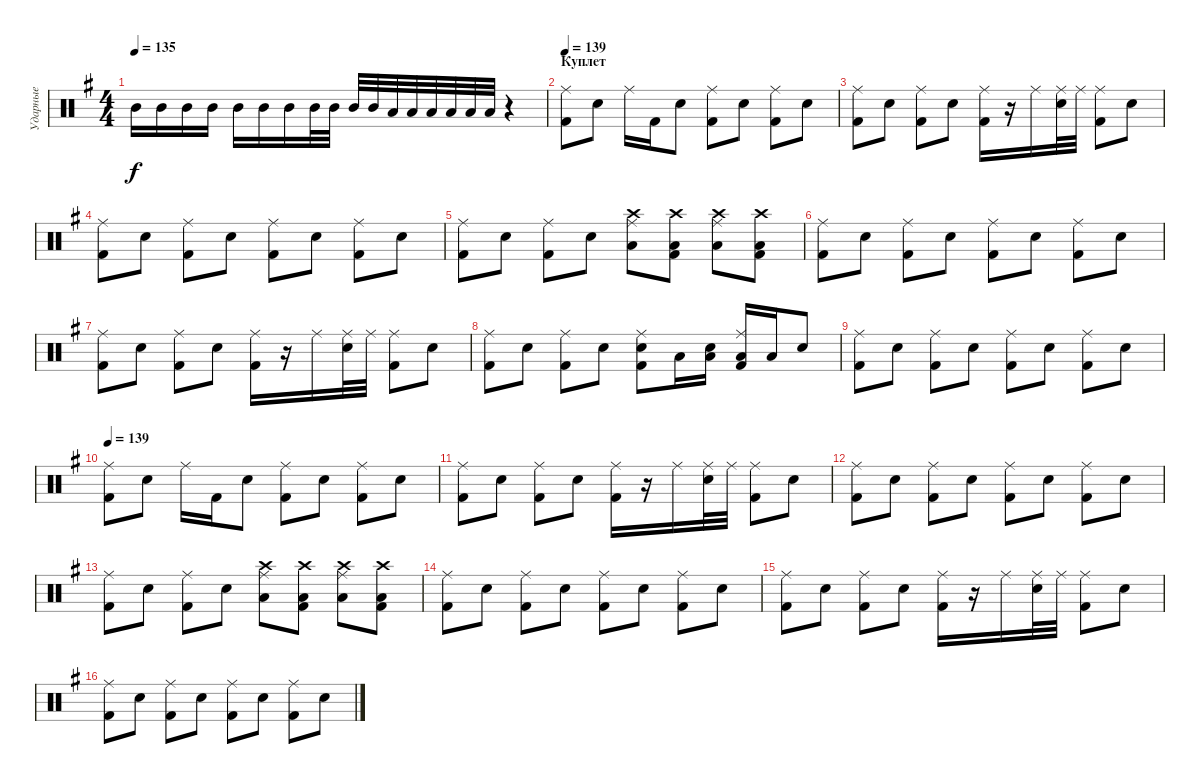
\track ("Ударные" "Ударные") {instrument percussion}
\staff {score}
\articulation defaults
\ts (4 4)
\tempo 135
\clef neutral
\ks eminor "Mid Tom (hit)".16{dy f} "Mid Tom (hit)".16 "Mid Tom (hit)".16 "Mid Tom (hit)".16 "Mid Tom (hit)".16 "Mid Tom (hit)".16 "Mid Tom (hit)".16 "Mid Tom (hit)".32 "Mid Tom (hit)".32 "Mid Tom (hit)".32 "Mid Tom (hit)".32 "Low Tom (hit)".32 "Low Tom (hit)".32 "Low Tom (hit)".32 "Low Tom (hit)".32 "Low Tom (hit)".32 "Low Tom (hit)".32
r.4 |
\section ("" "Куплет")
\tempo 139
("Ride (middle)" "Kick (hit) 2").8{volume 12} "Snare (hit) 2".8 "Ride (middle)".16 "Kick (hit) 2".16 "Snare (hit) 2".8 ("Ride (middle)" "Kick (hit) 2").8 "Snare (hit) 2".8 ("Ride (middle)" "Kick (hit) 2").8 "Snare (hit) 2".8 |
("Ride (middle)" "Kick (hit) 2").8 "Snare (hit) 2".8 ("Ride (middle)" "Kick (hit) 2").8 "Snare (hit) 2".8 ("Ride (middle)" "Kick (hit) 2").16 r.16 "Ride (middle)".16 ("Ride (middle)" "Snare (hit) 2").32 "Ride (middle)".32 ("Ride (middle)" "Kick (hit) 2").8 "Snare (hit) 2".8 |
("Ride (middle)" "Kick (hit) 2").8 "Snare (hit) 2".8 ("Ride (middle)" "Kick (hit) 2").8 "Snare (hit) 2".8 ("Ride (middle)" "Kick (hit) 2").8 "Snare (hit) 2".8 ("Ride (middle)" "Kick (hit) 2").8 "Snare (hit) 2".8 |
("Ride (middle)" "Kick (hit) 2").8 "Snare (hit) 2".8 ("Ride (middle)" "Kick (hit) 2").8 "Snare (hit) 2".8 ("Crash high (hit)" "Ride (middle)" "Low Tom (hit)").8 ("Crash high (hit)" "Kick (hit) 2" "Low Tom (hit)").8 ("Crash high (hit)" "Ride (middle)" "Low Tom (hit)").8 ("Crash high (hit)" "Kick (hit) 2" "Low Tom (hit)").8 |
("Ride (middle)" "Kick (hit) 2").8 "Snare (hit) 2".8 ("Ride (middle)" "Kick (hit) 2").8 "Snare (hit) 2".8 ("Ride (middle)" "Kick (hit) 2").8 "Snare (hit) 2".8 ("Ride (middle)" "Kick (hit) 2").8 "Snare (hit) 2".8 |
("Ride (middle)" "Kick (hit) 2").8 "Snare (hit) 2".8 ("Ride (middle)" "Kick (hit) 2").8 "Snare (hit) 2".8 ("Ride (middle)" "Kick (hit) 2").16 r.16 "Ride (middle)".16 ("Ride (middle)" "Snare (hit) 2").32 "Ride (middle)".32 ("Ride (middle)" "Kick (hit) 2").8 "Snare (hit) 2".8 |
("Ride (middle)" "Kick (hit) 2").8 "Snare (hit) 2".8 ("Ride (middle)" "Kick (hit) 2").8 "Snare (hit) 2".8 ("Snare (hit) 2" "Ride (middle)" "Kick (hit) 2").8 "Low Tom (hit)".16 ("Low Tom (hit)" "Snare (hit) 2").16 ("Low Tom (hit)" "Ride (middle)" "Kick (hit) 2").16 "Low Tom (hit)".16 "Snare (hit) 2".8 |
("Ride (middle)" "Kick (hit) 2").8 "Snare (hit) 2".8 ("Ride (middle)" "Kick (hit) 2").8 "Snare (hit) 2".8 ("Ride (middle)" "Kick (hit) 2").8 "Snare (hit) 2".8 ("Ride (middle)" "Kick (hit) 2").8 "Snare (hit) 2".8 |
\tempo 139
("Ride (middle)" "Kick (hit) 2").8 "Snare (hit) 2".8 "Ride (middle)".16 "Kick (hit) 2".16 "Snare (hit) 2".8 ("Ride (middle)" "Kick (hit) 2").8 "Snare (hit) 2".8 ("Ride (middle)" "Kick (hit) 2").8 "Snare (hit) 2".8 |
("Ride (middle)" "Kick (hit) 2").8 "Snare (hit) 2".8 ("Ride (middle)" "Kick (hit) 2").8 "Snare (hit) 2".8 ("Ride (middle)" "Kick (hit) 2").16 r.16 "Ride (middle)".16 ("Ride (middle)" "Snare (hit) 2").32 "Ride (middle)".32 ("Ride (middle)" "Kick (hit) 2").8 "Snare (hit) 2".8 |
("Ride (middle)" "Kick (hit) 2").8 "Snare (hit) 2".8 ("Ride (middle)" "Kick (hit) 2").8 "Snare (hit) 2".8 ("Ride (middle)" "Kick (hit) 2").8 "Snare (hit) 2".8 ("Ride (middle)" "Kick (hit) 2").8 "Snare (hit) 2".8 |
("Ride (middle)" "Kick (hit) 2").8 "Snare (hit) 2".8 ("Ride (middle)" "Kick (hit) 2").8 "Snare (hit) 2".8 ("Crash high (hit)" "Ride (middle)" "Low Tom (hit)").8 ("Crash high (hit)" "Kick (hit) 2" "Low Tom (hit)").8 ("Crash high (hit)" "Ride (middle)" "Low Tom (hit)").8 ("Crash high (hit)" "Kick (hit) 2" "Low Tom (hit)").8 |
("Ride (middle)" "Kick (hit) 2").8 "Snare (hit) 2".8 ("Ride (middle)" "Kick (hit) 2").8 "Snare (hit) 2".8 ("Ride (middle)" "Kick (hit) 2").8 "Snare (hit) 2".8 ("Ride (middle)" "Kick (hit) 2").8 "Snare (hit) 2".8 |
("Ride (middle)" "Kick (hit) 2").8 "Snare (hit) 2".8 ("Ride (middle)" "Kick (hit) 2").8 "Snare (hit) 2".8 ("Ride (middle)" "Kick (hit) 2").16 r.16 "Ride (middle)".16 ("Ride (middle)" "Snare (hit) 2").32 "Ride (middle)".32 ("Ride (middle)" "Kick (hit) 2").8 "Snare (hit) 2".8 |
("Ride (middle)" "Kick (hit) 2").8 "Snare (hit) 2".8 ("Ride (middle)" "Kick (hit) 2").8 "Snare (hit) 2".8 ("Ride (middle)" "Kick (hit) 2").8 "Snare (hit) 2".8 ("Ride (middle)" "Kick (hit) 2").8 "Snare (hit) 2".8
